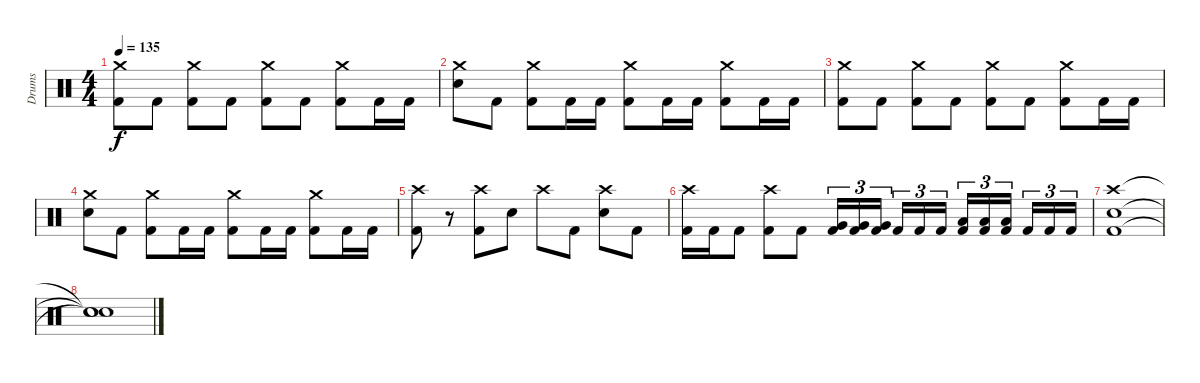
\track ("Drums" "Drums") {instrument percussion}
\staff {score}
\articulation defaults
\ts (4 4)
\tempo 135
\clef neutral
\ks c
("Crash medium (hit)" "Kick (hit) 2").8{dy f} "Kick (hit) 2".8 ("Crash medium (hit)" "Kick (hit) 2").8 "Kick (hit) 2".8 ("Crash medium (hit)" "Kick (hit) 2").8 "Kick (hit) 2".8 ("Crash medium (hit)" "Kick (hit) 2").8 "Kick (hit) 2".16 "Kick (hit) 2".16 |
("Crash medium (hit)" "Electric Snare (hit)").8 "Kick (hit) 2".8 ("Crash medium (hit)" "Kick (hit) 2").8 "Kick (hit) 2".16 "Kick (hit) 2".16 ("Crash medium (hit)" "Kick (hit) 2").8 "Kick (hit) 2".16 "Kick (hit) 2".16 ("Crash medium (hit)" "Kick (hit) 2").8 "Kick (hit) 2".16 "Kick (hit) 2".16 |
("Crash medium (hit)" "Kick (hit) 2").8 "Kick (hit) 2".8 ("Crash medium (hit)" "Kick (hit) 2").8 "Kick (hit) 2".8 ("Crash medium (hit)" "Kick (hit) 2").8 "Kick (hit) 2".8 ("Crash medium (hit)" "Kick (hit) 2").8 "Kick (hit) 2".16 "Kick (hit) 2".16 |
("Crash medium (hit)" "Electric Snare (hit)").8 "Kick (hit) 2".8 ("Crash medium (hit)" "Kick (hit) 2").8 "Kick (hit) 2".16 "Kick (hit) 2".16 ("Crash medium (hit)" "Kick (hit) 2").8 "Kick (hit) 2".16 "Kick (hit) 2".16 ("Crash medium (hit)" "Kick (hit) 2").8 "Kick (hit) 2".16 "Kick (hit) 2".16 |
("Crash high (hit)" "Kick (hit) 2").8 r.8 ("Crash high (hit)" "Kick (hit) 2").8 "Electric Snare (hit)".8 "Crash high (hit)".8 "Kick (hit) 2".8 ("Crash high (hit)" "Electric Snare (hit)").8 "Kick (hit) 2".8 |
("Crash high (hit)" "Kick (hit) 2").16 "Kick (hit) 2".16 "Kick (hit) 2".8 ("Crash high (hit)" "Kick (hit) 2").8 "Kick (hit) 2".8 ("Very Low Tom (hit)" "Kick (hit) 2").16{tu (3 2)} ("Very Low Tom (hit)" "Kick (hit) 2").16{tu (3 2)} ("Very Low Tom (hit)" "Kick (hit) 2").16{tu (3 2) beam splitsecondary} "Kick (hit) 2".16{tu (3 2)} "Kick (hit) 2".16{tu (3 2)} "Kick (hit) 2".16{tu (3 2)} ("Low Floor Tom (hit)" "Kick (hit) 2").16{tu (3 2)} ("Low Floor Tom (hit)" "Kick (hit) 2").16{tu (3 2)} ("Low Floor Tom (hit)" "Kick (hit) 2").16{tu (3 2) beam splitsecondary} "Kick (hit) 2".16{tu (3 2)} "Kick (hit) 2".16{tu (3 2)} "Kick (hit) 2".16{tu (3 2)} |
("Crash high (hit)" "Kick (hit) 2" "Electric Snare (hit)").1 |
("Snare (hit)"{t} "Snare (hit)"{t} "Snare (hit)"{t}).1
